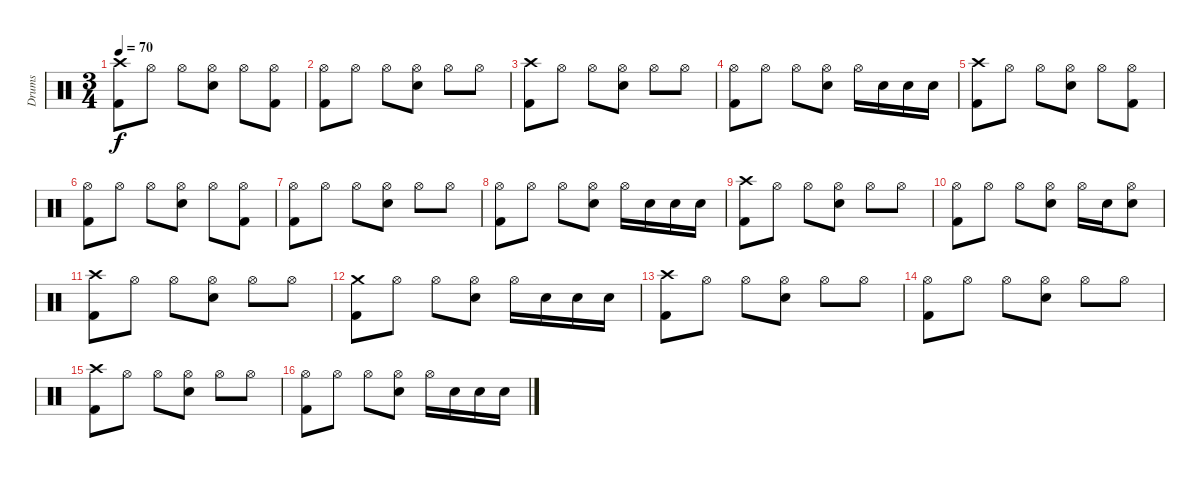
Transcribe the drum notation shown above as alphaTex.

\track ("Drums" "Drums") {instrument percussion}
\staff {score}
\articulation defaults
\ts (3 4)
\tempo 70
\clef neutral
\ks c
("Crash high (hit)" "Kick (hit) 2").8{dy f} "Hi-Hat (open)".8 "Hi-Hat (open)".8 ("Hi-Hat (open)" "Electric Snare (hit)").8 "Hi-Hat (open)".8 ("Hi-Hat (open)" "Kick (hit) 2").8 |
("Hi-Hat (open)" "Kick (hit) 2").8 "Hi-Hat (open)".8 "Hi-Hat (open)".8 ("Hi-Hat (open)" "Electric Snare (hit)").8 "Hi-Hat (open)".8 "Hi-Hat (open)".8 |
("Crash high (hit)" "Kick (hit) 2").8 "Hi-Hat (open)".8 "Hi-Hat (open)".8 ("Hi-Hat (open)" "Electric Snare (hit)").8 "Hi-Hat (open)".8 "Hi-Hat (open)".8 |
("Hi-Hat (open)" "Kick (hit) 2").8 "Hi-Hat (open)".8 "Hi-Hat (open)".8 ("Hi-Hat (open)" "Electric Snare (hit)").8 "Hi-Hat (open)".16 "Electric Snare (hit)".16 "Electric Snare (hit)".16 "Electric Snare (hit)".16 |
("Crash high (hit)" "Kick (hit) 2").8 "Hi-Hat (open)".8 "Hi-Hat (open)".8 ("Hi-Hat (open)" "Electric Snare (hit)").8 "Hi-Hat (open)".8 ("Hi-Hat (open)" "Kick (hit) 2").8 |
("Hi-Hat (open)" "Kick (hit) 2").8 "Hi-Hat (open)".8 "Hi-Hat (open)".8 ("Hi-Hat (open)" "Electric Snare (hit)").8 "Hi-Hat (open)".8 ("Hi-Hat (open)" "Kick (hit) 2").8 |
("Hi-Hat (open)" "Kick (hit) 2").8 "Hi-Hat (open)".8 "Hi-Hat (open)".8 ("Hi-Hat (open)" "Electric Snare (hit)").8 "Hi-Hat (open)".8 "Hi-Hat (open)".8 |
("Hi-Hat (open)" "Kick (hit) 2").8 "Hi-Hat (open)".8 "Hi-Hat (open)".8 ("Hi-Hat (open)" "Electric Snare (hit)").8 "Hi-Hat (open)".16 "Electric Snare (hit)".16 "Electric Snare (hit)".16 "Electric Snare (hit)".16 |
("Crash high (hit)" "Kick (hit) 2").8 "Hi-Hat (open)".8 "Hi-Hat (open)".8 ("Hi-Hat (open)" "Electric Snare (hit)").8 "Hi-Hat (open)".8 "Hi-Hat (open)".8 |
("Hi-Hat (open)" "Kick (hit) 2").8 "Hi-Hat (open)".8 "Hi-Hat (open)".8 ("Hi-Hat (open)" "Electric Snare (hit)").8 "Hi-Hat (open)".16 "Electric Snare (hit)".16 ("Hi-Hat (open)" "Electric Snare (hit)").8 |
("Crash high (hit)" "Kick (hit) 2").8 "Hi-Hat (open)".8 "Hi-Hat (open)".8 ("Hi-Hat (open)" "Electric Snare (hit)").8 "Hi-Hat (open)".8 "Hi-Hat (open)".8 |
("Crash medium (hit)" "Kick (hit) 2").8 "Hi-Hat (open)".8 "Hi-Hat (open)".8 ("Hi-Hat (open)" "Electric Snare (hit)").8 "Hi-Hat (open)".16 "Electric Snare (hit)".16 "Electric Snare (hit)".16 "Electric Snare (hit)".16 |
("Crash high (hit)" "Kick (hit) 2").8 "Hi-Hat (open)".8 "Hi-Hat (open)".8 ("Hi-Hat (open)" "Electric Snare (hit)").8 "Hi-Hat (open)".8 "Hi-Hat (open)".8 |
("Hi-Hat (open)" "Kick (hit) 2").8 "Hi-Hat (open)".8 "Hi-Hat (open)".8 ("Hi-Hat (open)" "Electric Snare (hit)").8 "Hi-Hat (open)".8 "Hi-Hat (open)".8 |
("Crash high (hit)" "Kick (hit) 2").8 "Hi-Hat (open)".8 "Hi-Hat (open)".8 ("Hi-Hat (open)" "Electric Snare (hit)").8 "Hi-Hat (open)".8 "Hi-Hat (open)".8 |
("Hi-Hat (open)" "Kick (hit) 2").8 "Hi-Hat (open)".8 "Hi-Hat (open)".8 ("Hi-Hat (open)" "Electric Snare (hit)").8 "Hi-Hat (open)".16 "Electric Snare (hit)".16 "Electric Snare (hit)".16 "Electric Snare (hit)".16
